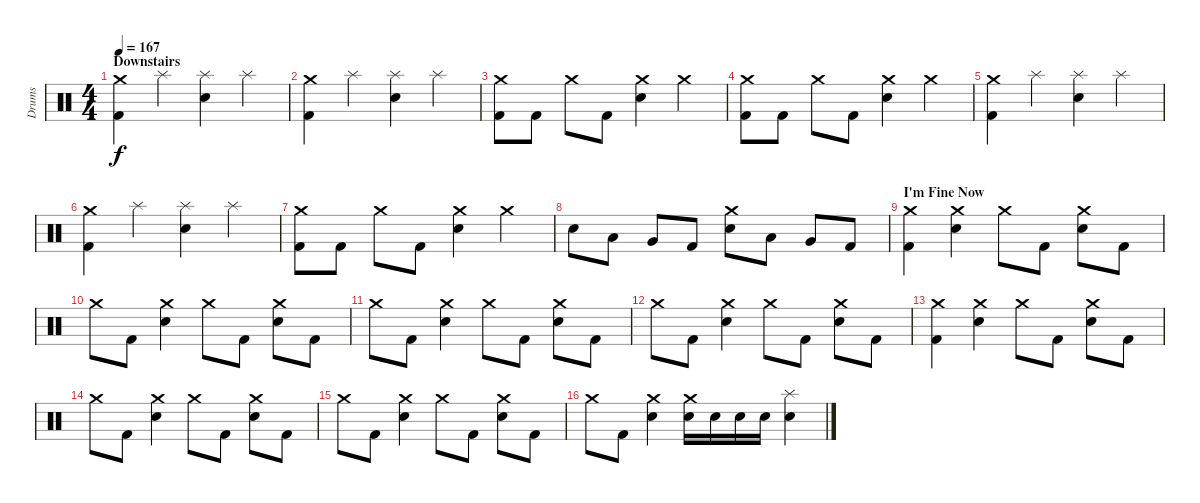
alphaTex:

\track ("Drums" "Drums") {instrument percussion}
\staff {score}
\articulation defaults
\ts (4 4)
\section ("" "Downstairs")
\tempo 167
\clef neutral
\ks c
("Crash medium (hit)" "Kick (hit) 2").4{dy f} "Splash (hit)".4 ("Splash (hit)" "Electric Snare (hit)").4 "Splash (hit)".4 |
("Crash medium (hit)" "Kick (hit) 2").4 "Splash (hit)".4 ("Splash (hit)" "Electric Snare (hit)").4 "Splash (hit)".4 |
("Crash medium (hit)" "Kick (hit) 2").8 "Kick (hit) 2".8 "Crash medium (hit)".8 "Kick (hit) 2".8 ("Crash medium (hit)" "Electric Snare (hit)").4 "Crash medium (hit)".4 |
("Crash medium (hit)" "Kick (hit) 2").8 "Kick (hit) 2".8 "Crash medium (hit)".8 "Kick (hit) 2".8 ("Crash medium (hit)" "Electric Snare (hit)").4 "Crash medium (hit)".4 |
("Crash medium (hit)" "Kick (hit) 2").4 "Splash (hit)".4 ("Splash (hit)" "Electric Snare (hit)").4 "Splash (hit)".4 |
("Crash medium (hit)" "Kick (hit) 2").4 "Splash (hit)".4 ("Splash (hit)" "Electric Snare (hit)").4 "Splash (hit)".4 |
("Crash medium (hit)" "Kick (hit) 2").8 "Kick (hit) 2".8 "Crash medium (hit)".8 "Kick (hit) 2".8 ("Crash medium (hit)" "Electric Snare (hit)").4 "Crash medium (hit)".4 |
"Electric Snare (hit)".8 "Low Tom (hit)".8 "Very Low Tom (hit)".8 "Kick (hit) 2".8 ("Crash medium (hit)" "Electric Snare (hit)").8 "Low Tom (hit)".8 "Very Low Tom (hit)".8 "Kick (hit) 2".8 |
\section ("" "I'm Fine Now")
("Crash medium (hit)" "Kick (hit) 2").4 ("Crash medium (hit)" "Electric Snare (hit)").4 "Crash medium (hit)".8 "Kick (hit) 2".8 ("Crash medium (hit)" "Electric Snare (hit)").8 "Kick (hit) 2".8 |
"Crash medium (hit)".8 "Kick (hit) 2".8 ("Crash medium (hit)" "Electric Snare (hit)").4 "Crash medium (hit)".8 "Kick (hit) 2".8 ("Crash medium (hit)" "Electric Snare (hit)").8 "Kick (hit) 2".8 |
"Crash medium (hit)".8 "Kick (hit) 2".8 ("Crash medium (hit)" "Electric Snare (hit)").4 "Crash medium (hit)".8 "Kick (hit) 2".8 ("Crash medium (hit)" "Electric Snare (hit)").8 "Kick (hit) 2".8 |
"Crash medium (hit)".8 "Kick (hit) 2".8 ("Crash medium (hit)" "Electric Snare (hit)").4 "Crash medium (hit)".8 "Kick (hit) 2".8 ("Crash medium (hit)" "Electric Snare (hit)").8 "Kick (hit) 2".8 |
("Crash medium (hit)" "Kick (hit) 2").4 ("Crash medium (hit)" "Electric Snare (hit)").4 "Crash medium (hit)".8 "Kick (hit) 2".8 ("Crash medium (hit)" "Electric Snare (hit)").8 "Kick (hit) 2".8 |
"Crash medium (hit)".8 "Kick (hit) 2".8 ("Crash medium (hit)" "Electric Snare (hit)").4 "Crash medium (hit)".8 "Kick (hit) 2".8 ("Crash medium (hit)" "Electric Snare (hit)").8 "Kick (hit) 2".8 |
"Crash medium (hit)".8 "Kick (hit) 2".8 ("Crash medium (hit)" "Electric Snare (hit)").4 "Crash medium (hit)".8 "Kick (hit) 2".8 ("Crash medium (hit)" "Electric Snare (hit)").8 "Kick (hit) 2".8 |
"Crash medium (hit)".8 "Kick (hit) 2".8 ("Crash medium (hit)" "Electric Snare (hit)").4 ("Crash medium (hit)" "Electric Snare (hit)").16 "Electric Snare (hit)".16 "Electric Snare (hit)".16 "Electric Snare (hit)".16 ("Splash (hit)" "Electric Snare (hit)").4
